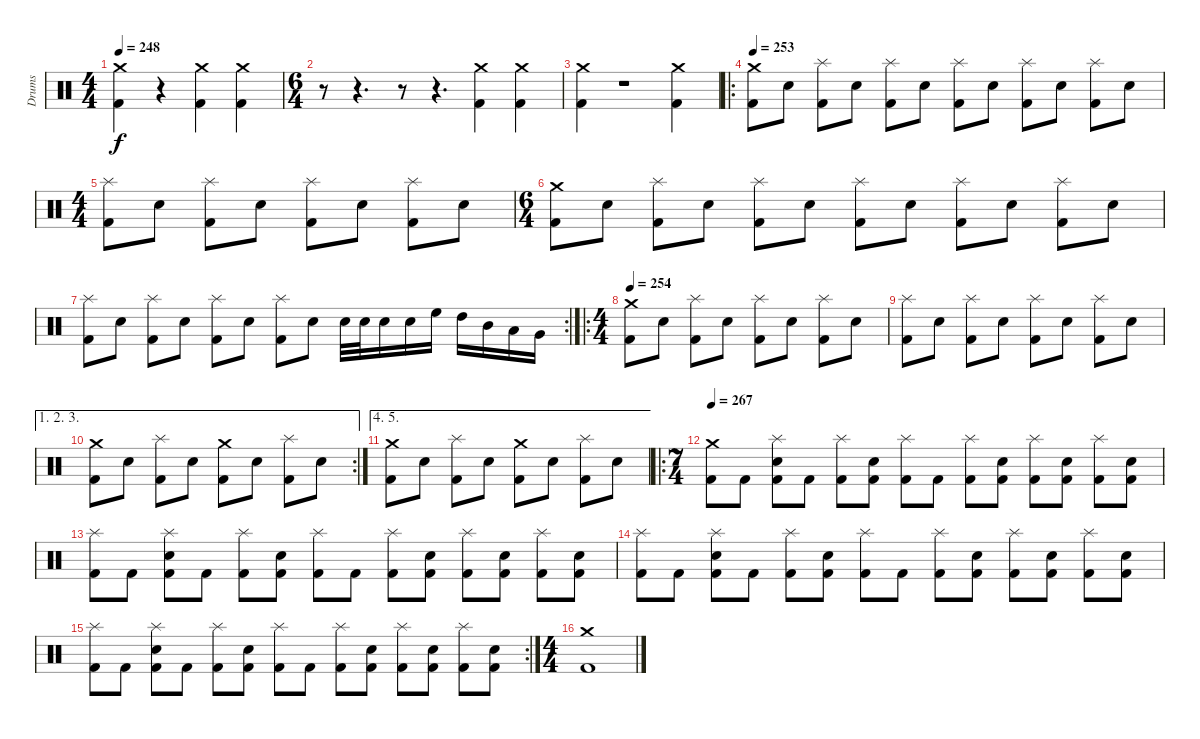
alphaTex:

\track ("Drums" "Drums") {instrument percussion}
\staff {score}
\articulation defaults
\ts (4 4)
\tempo 248
\clef neutral
\ks c
("Crash medium (hit)" "Kick (hit) 2").4{dy f} r.4 ("Crash medium (hit)" "Kick (hit) 2").4 ("Crash medium (hit)" "Kick (hit) 2").4 |
\ts (6 4)
r.8 r.4{d} r.8 r.4{d} ("Crash medium (hit)" "Kick (hit) 2").4 ("Crash medium (hit)" "Kick (hit) 2").4 |
("Crash medium (hit)" "Kick (hit) 2").4 r.1 ("Crash medium (hit)" "Kick (hit) 2").4 |
\ro
\tempo 253
("Crash medium (hit)" "Kick (hit) 2").8 "Snare (hit) 2".8 ("Splash (hit)" "Kick (hit) 2").8 "Snare (hit) 2".8 ("Splash (hit)" "Kick (hit) 2").8 "Snare (hit) 2".8 ("Splash (hit)" "Kick (hit) 2").8 "Snare (hit) 2".8 ("Splash (hit)" "Kick (hit) 2").8 "Snare (hit) 2".8 ("Splash (hit)" "Kick (hit) 2").8 "Snare (hit) 2".8 |
\ts (4 4)
("Splash (hit)" "Kick (hit) 2").8 "Snare (hit) 2".8 ("Splash (hit)" "Kick (hit) 2").8 "Snare (hit) 2".8 ("Splash (hit)" "Kick (hit) 2").8 "Snare (hit) 2".8 ("Splash (hit)" "Kick (hit) 2").8 "Snare (hit) 2".8 |
\ts (6 4)
("Crash medium (hit)" "Kick (hit) 2").8 "Snare (hit) 2".8 ("Splash (hit)" "Kick (hit) 2").8 "Snare (hit) 2".8 ("Splash (hit)" "Kick (hit) 2").8 "Snare (hit) 2".8 ("Splash (hit)" "Kick (hit) 2").8 "Snare (hit) 2".8 ("Splash (hit)" "Kick (hit) 2").8 "Snare (hit) 2".8 ("Splash (hit)" "Kick (hit) 2").8 "Snare (hit) 2".8 |
\rc 2
("Splash (hit)" "Kick (hit) 2").8 "Snare (hit) 2".8 ("Splash (hit)" "Kick (hit) 2").8 "Snare (hit) 2".8 ("Splash (hit)" "Kick (hit) 2").8 "Snare (hit) 2".8 ("Splash (hit)" "Kick (hit) 2").8 "Snare (hit) 2".8 "Snare (hit) 2".32 "Snare (hit) 2".32 "Snare (hit) 2".16 "Snare (hit) 2".16 "High Floor Tom (hit)".16 "High Tom (hit)".16 "Mid Tom (hit)".16 "Low Tom (hit)".16 "Very Low Tom (hit)".16 |
\ro
\ts (4 4)
\tempo 254
("Crash medium (hit)" "Kick (hit) 2").8 "Snare (hit) 2".8 ("Splash (hit)" "Kick (hit) 2").8 "Snare (hit) 2".8 ("Splash (hit)" "Kick (hit) 2").8 "Snare (hit) 2".8 ("Splash (hit)" "Kick (hit) 2").8 "Snare (hit) 2".8 |
("Splash (hit)" "Kick (hit) 2").8 "Snare (hit) 2".8 ("Splash (hit)" "Kick (hit) 2").8 "Snare (hit) 2".8 ("Splash (hit)" "Kick (hit) 2").8 "Snare (hit) 2".8 ("Splash (hit)" "Kick (hit) 2").8 "Snare (hit) 2".8 |
\ae (1 2 3)
\rc 2
("Crash medium (hit)" "Kick (hit) 2").8 "Snare (hit) 2".8 ("Splash (hit)" "Kick (hit) 2").8 "Snare (hit) 2".8 ("Crash medium (hit)" "Kick (hit) 2").8 "Snare (hit) 2".8 ("Splash (hit)" "Kick (hit) 2").8 "Snare (hit) 2".8 |
\ae (4 5)
("Crash medium (hit)" "Kick (hit) 2").8 "Snare (hit) 2".8 ("Splash (hit)" "Kick (hit) 2").8 "Snare (hit) 2".8 ("Crash medium (hit)" "Kick (hit) 2").8 "Snare (hit) 2".8 ("Splash (hit)" "Kick (hit) 2").8 "Snare (hit) 2".8 |
\ro
\ts (7 4)
\tempo 267
("Crash medium (hit)" "Kick (hit) 2").8 "Kick (hit) 2".8 ("Splash (hit)" "Snare (hit) 2" "Kick (hit) 2").8 "Kick (hit) 2".8 ("Splash (hit)" "Kick (hit) 2").8 ("Snare (hit) 2" "Kick (hit) 2").8 ("Splash (hit)" "Kick (hit) 2").8 "Kick (hit) 2".8 ("Splash (hit)" "Kick (hit) 2").8 ("Snare (hit) 2" "Kick (hit) 2").8 ("Splash (hit)" "Kick (hit) 2").8 ("Snare (hit) 2" "Kick (hit) 2").8 ("Splash (hit)" "Kick (hit) 2").8 ("Snare (hit) 2" "Kick (hit) 2").8 |
("Splash (hit)" "Kick (hit) 2").8 "Kick (hit) 2".8 ("Splash (hit)" "Snare (hit) 2" "Kick (hit) 2").8 "Kick (hit) 2".8 ("Splash (hit)" "Kick (hit) 2").8 ("Snare (hit) 2" "Kick (hit) 2").8 ("Splash (hit)" "Kick (hit) 2").8 "Kick (hit) 2".8 ("Splash (hit)" "Kick (hit) 2").8 ("Snare (hit) 2" "Kick (hit) 2").8 ("Splash (hit)" "Kick (hit) 2").8 ("Snare (hit) 2" "Kick (hit) 2").8 ("Splash (hit)" "Kick (hit) 2").8 ("Snare (hit) 2" "Kick (hit) 2").8 |
("Splash (hit)" "Kick (hit) 2").8 "Kick (hit) 2".8 ("Splash (hit)" "Snare (hit) 2" "Kick (hit) 2").8 "Kick (hit) 2".8 ("Splash (hit)" "Kick (hit) 2").8 ("Snare (hit) 2" "Kick (hit) 2").8 ("Splash (hit)" "Kick (hit) 2").8 "Kick (hit) 2".8 ("Splash (hit)" "Kick (hit) 2").8 ("Snare (hit) 2" "Kick (hit) 2").8 ("Splash (hit)" "Kick (hit) 2").8 ("Snare (hit) 2" "Kick (hit) 2").8 ("Splash (hit)" "Kick (hit) 2").8 ("Snare (hit) 2" "Kick (hit) 2").8 |
\rc 2
("Splash (hit)" "Kick (hit) 2").8 "Kick (hit) 2".8 ("Splash (hit)" "Snare (hit) 2" "Kick (hit) 2").8 "Kick (hit) 2".8 ("Splash (hit)" "Kick (hit) 2").8 ("Snare (hit) 2" "Kick (hit) 2").8 ("Splash (hit)" "Kick (hit) 2").8 "Kick (hit) 2".8 ("Splash (hit)" "Kick (hit) 2").8 ("Snare (hit) 2" "Kick (hit) 2").8 ("Splash (hit)" "Kick (hit) 2").8 ("Snare (hit) 2" "Kick (hit) 2").8 ("Splash (hit)" "Kick (hit) 2").8 ("Snare (hit) 2" "Kick (hit) 2").8 |
\ts (4 4)
("Crash medium (hit)" "Kick (hit) 2").1
